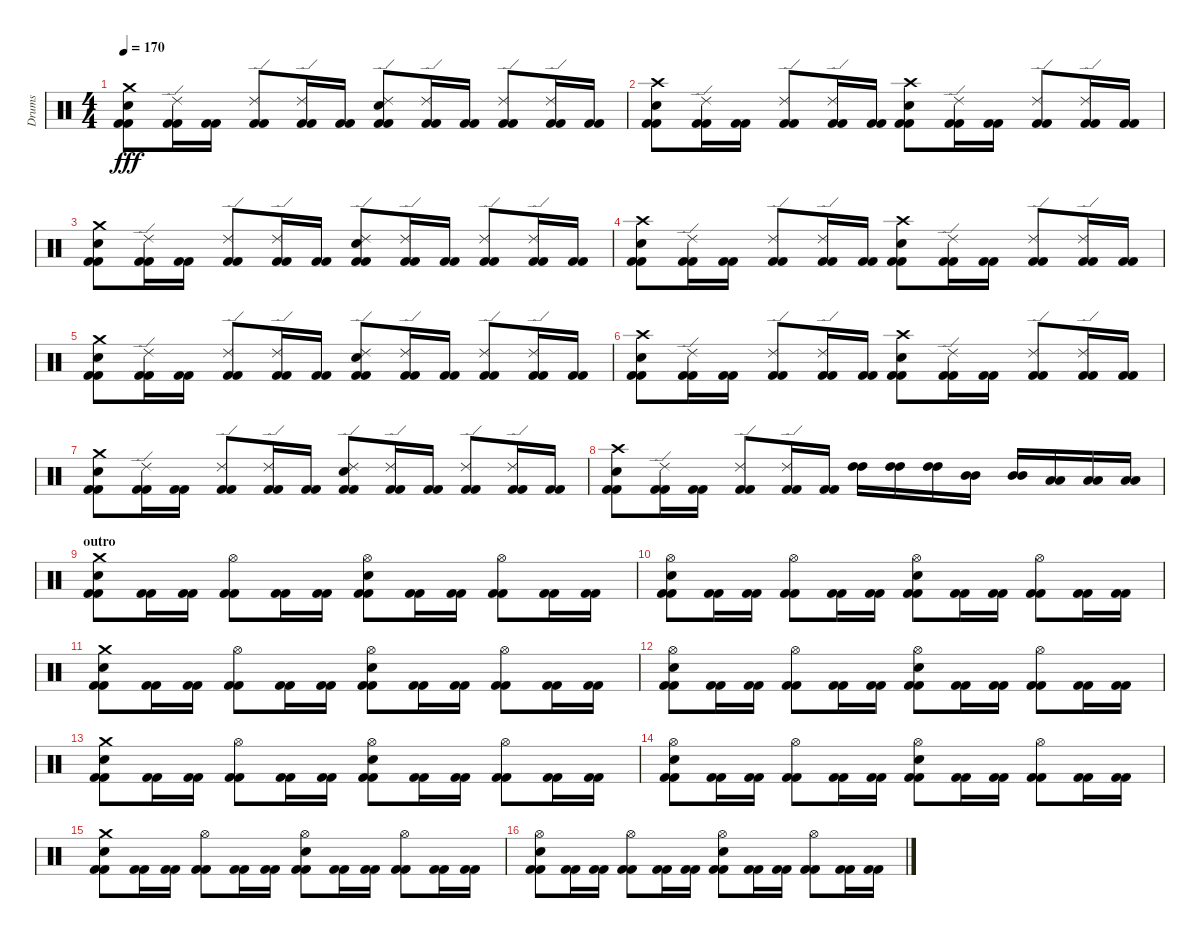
\track ("Drums" "Drums") {instrument percussion}
\staff {score}
\articulation defaults
\ts (4 4)
\tempo 170
\clef neutral
\ks c
("Crash medium (hit)" "Electric Snare (hit)" "Kick (hit) 2" "Kick (hit) 2").8{dy fff} ("Ride (edge) 2" "Kick (hit) 2" "Kick (hit) 2").16 ("Kick (hit) 2" "Kick (hit) 2").16 ("Ride (edge) 2" "Kick (hit) 2" "Kick (hit) 2").8 ("Ride (edge) 2" "Kick (hit) 2" "Kick (hit) 2").16 ("Kick (hit) 2" "Kick (hit) 2").16 ("Ride (edge) 2" "Electric Snare (hit)" "Kick (hit) 2" "Kick (hit) 2").8 ("Ride (edge) 2" "Kick (hit) 2" "Kick (hit) 2").16 ("Kick (hit) 2" "Kick (hit) 2").16 ("Ride (edge) 2" "Kick (hit) 2" "Kick (hit) 2").8 ("Ride (edge) 2" "Kick (hit) 2" "Kick (hit) 2").16 ("Kick (hit) 2" "Kick (hit) 2").16 |
("Crash high (hit)" "Electric Snare (hit)" "Kick (hit) 2" "Kick (hit) 2").8 ("Ride (edge) 2" "Kick (hit) 2" "Kick (hit) 2").16 ("Kick (hit) 2" "Kick (hit) 2").16 ("Ride (edge) 2" "Kick (hit) 2" "Kick (hit) 2").8 ("Ride (edge) 2" "Kick (hit) 2" "Kick (hit) 2").16 ("Kick (hit) 2" "Kick (hit) 2").16 ("Crash high (hit)" "Electric Snare (hit)" "Kick (hit) 2" "Kick (hit) 2").8 ("Ride (edge) 2" "Kick (hit) 2" "Kick (hit) 2").16 ("Kick (hit) 2" "Kick (hit) 2").16 ("Ride (edge) 2" "Kick (hit) 2" "Kick (hit) 2").8 ("Ride (edge) 2" "Kick (hit) 2" "Kick (hit) 2").16 ("Kick (hit) 2" "Kick (hit) 2").16 |
("Crash medium (hit)" "Electric Snare (hit)" "Kick (hit) 2" "Kick (hit) 2").8 ("Ride (edge) 2" "Kick (hit) 2" "Kick (hit) 2").16 ("Kick (hit) 2" "Kick (hit) 2").16 ("Ride (edge) 2" "Kick (hit) 2" "Kick (hit) 2").8 ("Ride (edge) 2" "Kick (hit) 2" "Kick (hit) 2").16 ("Kick (hit) 2" "Kick (hit) 2").16 ("Ride (edge) 2" "Electric Snare (hit)" "Kick (hit) 2" "Kick (hit) 2").8 ("Ride (edge) 2" "Kick (hit) 2" "Kick (hit) 2").16 ("Kick (hit) 2" "Kick (hit) 2").16 ("Ride (edge) 2" "Kick (hit) 2" "Kick (hit) 2").8 ("Ride (edge) 2" "Kick (hit) 2" "Kick (hit) 2").16 ("Kick (hit) 2" "Kick (hit) 2").16 |
("Crash high (hit)" "Electric Snare (hit)" "Kick (hit) 2" "Kick (hit) 2").8 ("Ride (edge) 2" "Kick (hit) 2" "Kick (hit) 2").16 ("Kick (hit) 2" "Kick (hit) 2").16 ("Ride (edge) 2" "Kick (hit) 2" "Kick (hit) 2").8 ("Ride (edge) 2" "Kick (hit) 2" "Kick (hit) 2").16 ("Kick (hit) 2" "Kick (hit) 2").16 ("Crash high (hit)" "Electric Snare (hit)" "Kick (hit) 2" "Kick (hit) 2").8 ("Ride (edge) 2" "Kick (hit) 2" "Kick (hit) 2").16 ("Kick (hit) 2" "Kick (hit) 2").16 ("Ride (edge) 2" "Kick (hit) 2" "Kick (hit) 2").8 ("Ride (edge) 2" "Kick (hit) 2" "Kick (hit) 2").16 ("Kick (hit) 2" "Kick (hit) 2").16 |
("Crash medium (hit)" "Electric Snare (hit)" "Kick (hit) 2" "Kick (hit) 2").8 ("Ride (edge) 2" "Kick (hit) 2" "Kick (hit) 2").16 ("Kick (hit) 2" "Kick (hit) 2").16 ("Ride (edge) 2" "Kick (hit) 2" "Kick (hit) 2").8 ("Ride (edge) 2" "Kick (hit) 2" "Kick (hit) 2").16 ("Kick (hit) 2" "Kick (hit) 2").16 ("Ride (edge) 2" "Electric Snare (hit)" "Kick (hit) 2" "Kick (hit) 2").8 ("Ride (edge) 2" "Kick (hit) 2" "Kick (hit) 2").16 ("Kick (hit) 2" "Kick (hit) 2").16 ("Ride (edge) 2" "Kick (hit) 2" "Kick (hit) 2").8 ("Ride (edge) 2" "Kick (hit) 2" "Kick (hit) 2").16 ("Kick (hit) 2" "Kick (hit) 2").16 |
("Crash high (hit)" "Electric Snare (hit)" "Kick (hit) 2" "Kick (hit) 2").8 ("Ride (edge) 2" "Kick (hit) 2" "Kick (hit) 2").16 ("Kick (hit) 2" "Kick (hit) 2").16 ("Ride (edge) 2" "Kick (hit) 2" "Kick (hit) 2").8 ("Ride (edge) 2" "Kick (hit) 2" "Kick (hit) 2").16 ("Kick (hit) 2" "Kick (hit) 2").16 ("Crash high (hit)" "Electric Snare (hit)" "Kick (hit) 2" "Kick (hit) 2").8 ("Ride (edge) 2" "Kick (hit) 2" "Kick (hit) 2").16 ("Kick (hit) 2" "Kick (hit) 2").16 ("Ride (edge) 2" "Kick (hit) 2" "Kick (hit) 2").8 ("Ride (edge) 2" "Kick (hit) 2" "Kick (hit) 2").16 ("Kick (hit) 2" "Kick (hit) 2").16 |
("Crash medium (hit)" "Electric Snare (hit)" "Kick (hit) 2" "Kick (hit) 2").8 ("Ride (edge) 2" "Kick (hit) 2" "Kick (hit) 2").16 ("Kick (hit) 2" "Kick (hit) 2").16 ("Ride (edge) 2" "Kick (hit) 2" "Kick (hit) 2").8 ("Ride (edge) 2" "Kick (hit) 2" "Kick (hit) 2").16 ("Kick (hit) 2" "Kick (hit) 2").16 ("Ride (edge) 2" "Electric Snare (hit)" "Kick (hit) 2" "Kick (hit) 2").8 ("Ride (edge) 2" "Kick (hit) 2" "Kick (hit) 2").16 ("Kick (hit) 2" "Kick (hit) 2").16 ("Ride (edge) 2" "Kick (hit) 2" "Kick (hit) 2").8 ("Ride (edge) 2" "Kick (hit) 2" "Kick (hit) 2").16 ("Kick (hit) 2" "Kick (hit) 2").16 |
("Crash high (hit)" "Electric Snare (hit)" "Kick (hit) 2" "Kick (hit) 2").8 ("Ride (edge) 2" "Kick (hit) 2" "Kick (hit) 2").16 ("Kick (hit) 2" "Kick (hit) 2").16 ("Ride (edge) 2" "Kick (hit) 2" "Kick (hit) 2").8 ("Ride (edge) 2" "Kick (hit) 2" "Kick (hit) 2").16 ("Kick (hit) 2" "Kick (hit) 2").16 ("High Tom (hit)" "High Tom (hit)").16 ("High Tom (hit)" "High Tom (hit)").16 ("High Tom (hit)" "High Tom (hit)").16 ("Mid Tom (hit)" "Mid Tom (hit)").16 ("Mid Tom (hit)" "Mid Tom (hit)").16 ("Low Tom (hit)" "Low Tom (hit)").16 ("Low Tom (hit)" "Low Tom (hit)").16 ("Low Tom (hit)" "Low Tom (hit)").16 |
\section ("" "outro")
("Crash medium (hit)" "Electric Snare (hit)" "Kick (hit) 2" "Kick (hit) 2").8 ("Kick (hit) 2" "Kick (hit) 2").16 ("Kick (hit) 2" "Kick (hit) 2").16 ("Hi-Hat (open)" "Kick (hit) 2" "Kick (hit) 2").8 ("Kick (hit) 2" "Kick (hit) 2").16 ("Kick (hit) 2" "Kick (hit) 2").16 ("Hi-Hat (open)" "Electric Snare (hit)" "Kick (hit) 2" "Kick (hit) 2").8 ("Kick (hit) 2" "Kick (hit) 2").16 ("Kick (hit) 2" "Kick (hit) 2").16 ("Hi-Hat (open)" "Kick (hit) 2" "Kick (hit) 2").8 ("Kick (hit) 2" "Kick (hit) 2").16 ("Kick (hit) 2" "Kick (hit) 2").16 |
("Hi-Hat (open)" "Electric Snare (hit)" "Kick (hit) 2" "Kick (hit) 2").8 ("Kick (hit) 2" "Kick (hit) 2").16 ("Kick (hit) 2" "Kick (hit) 2").16 ("Hi-Hat (open)" "Kick (hit) 2" "Kick (hit) 2").8 ("Kick (hit) 2" "Kick (hit) 2").16 ("Kick (hit) 2" "Kick (hit) 2").16 ("Hi-Hat (open)" "Electric Snare (hit)" "Kick (hit) 2" "Kick (hit) 2").8 ("Kick (hit) 2" "Kick (hit) 2").16 ("Kick (hit) 2" "Kick (hit) 2").16 ("Hi-Hat (open)" "Kick (hit) 2" "Kick (hit) 2").8 ("Kick (hit) 2" "Kick (hit) 2").16 ("Kick (hit) 2" "Kick (hit) 2").16 |
("Crash medium (hit)" "Electric Snare (hit)" "Kick (hit) 2" "Kick (hit) 2").8 ("Kick (hit) 2" "Kick (hit) 2").16 ("Kick (hit) 2" "Kick (hit) 2").16 ("Hi-Hat (open)" "Kick (hit) 2" "Kick (hit) 2").8 ("Kick (hit) 2" "Kick (hit) 2").16 ("Kick (hit) 2" "Kick (hit) 2").16 ("Hi-Hat (open)" "Electric Snare (hit)" "Kick (hit) 2" "Kick (hit) 2").8 ("Kick (hit) 2" "Kick (hit) 2").16 ("Kick (hit) 2" "Kick (hit) 2").16 ("Hi-Hat (open)" "Kick (hit) 2" "Kick (hit) 2").8 ("Kick (hit) 2" "Kick (hit) 2").16 ("Kick (hit) 2" "Kick (hit) 2").16 |
("Hi-Hat (open)" "Electric Snare (hit)" "Kick (hit) 2" "Kick (hit) 2").8 ("Kick (hit) 2" "Kick (hit) 2").16 ("Kick (hit) 2" "Kick (hit) 2").16 ("Hi-Hat (open)" "Kick (hit) 2" "Kick (hit) 2").8 ("Kick (hit) 2" "Kick (hit) 2").16 ("Kick (hit) 2" "Kick (hit) 2").16 ("Hi-Hat (open)" "Electric Snare (hit)" "Kick (hit) 2" "Kick (hit) 2").8 ("Kick (hit) 2" "Kick (hit) 2").16 ("Kick (hit) 2" "Kick (hit) 2").16 ("Hi-Hat (open)" "Kick (hit) 2" "Kick (hit) 2").8 ("Kick (hit) 2" "Kick (hit) 2").16 ("Kick (hit) 2" "Kick (hit) 2").16 |
("Crash medium (hit)" "Electric Snare (hit)" "Kick (hit) 2" "Kick (hit) 2").8 ("Kick (hit) 2" "Kick (hit) 2").16 ("Kick (hit) 2" "Kick (hit) 2").16 ("Hi-Hat (open)" "Kick (hit) 2" "Kick (hit) 2").8 ("Kick (hit) 2" "Kick (hit) 2").16 ("Kick (hit) 2" "Kick (hit) 2").16 ("Hi-Hat (open)" "Electric Snare (hit)" "Kick (hit) 2" "Kick (hit) 2").8 ("Kick (hit) 2" "Kick (hit) 2").16 ("Kick (hit) 2" "Kick (hit) 2").16 ("Hi-Hat (open)" "Kick (hit) 2" "Kick (hit) 2").8 ("Kick (hit) 2" "Kick (hit) 2").16 ("Kick (hit) 2" "Kick (hit) 2").16 |
("Hi-Hat (open)" "Electric Snare (hit)" "Kick (hit) 2" "Kick (hit) 2").8 ("Kick (hit) 2" "Kick (hit) 2").16 ("Kick (hit) 2" "Kick (hit) 2").16 ("Hi-Hat (open)" "Kick (hit) 2" "Kick (hit) 2").8 ("Kick (hit) 2" "Kick (hit) 2").16 ("Kick (hit) 2" "Kick (hit) 2").16 ("Hi-Hat (open)" "Electric Snare (hit)" "Kick (hit) 2" "Kick (hit) 2").8 ("Kick (hit) 2" "Kick (hit) 2").16 ("Kick (hit) 2" "Kick (hit) 2").16 ("Hi-Hat (open)" "Kick (hit) 2" "Kick (hit) 2").8 ("Kick (hit) 2" "Kick (hit) 2").16 ("Kick (hit) 2" "Kick (hit) 2").16 |
("Crash medium (hit)" "Electric Snare (hit)" "Kick (hit) 2" "Kick (hit) 2").8 ("Kick (hit) 2" "Kick (hit) 2").16 ("Kick (hit) 2" "Kick (hit) 2").16 ("Hi-Hat (open)" "Kick (hit) 2" "Kick (hit) 2").8 ("Kick (hit) 2" "Kick (hit) 2").16 ("Kick (hit) 2" "Kick (hit) 2").16 ("Hi-Hat (open)" "Electric Snare (hit)" "Kick (hit) 2" "Kick (hit) 2").8 ("Kick (hit) 2" "Kick (hit) 2").16 ("Kick (hit) 2" "Kick (hit) 2").16 ("Hi-Hat (open)" "Kick (hit) 2" "Kick (hit) 2").8 ("Kick (hit) 2" "Kick (hit) 2").16 ("Kick (hit) 2" "Kick (hit) 2").16 |
("Hi-Hat (open)" "Electric Snare (hit)" "Kick (hit) 2" "Kick (hit) 2").8 ("Kick (hit) 2" "Kick (hit) 2").16 ("Kick (hit) 2" "Kick (hit) 2").16 ("Hi-Hat (open)" "Kick (hit) 2" "Kick (hit) 2").8 ("Kick (hit) 2" "Kick (hit) 2").16 ("Kick (hit) 2" "Kick (hit) 2").16 ("Hi-Hat (open)" "Electric Snare (hit)" "Kick (hit) 2" "Kick (hit) 2").8 ("Kick (hit) 2" "Kick (hit) 2").16 ("Kick (hit) 2" "Kick (hit) 2").16 ("Hi-Hat (open)" "Kick (hit) 2" "Kick (hit) 2").8 ("Kick (hit) 2" "Kick (hit) 2").16 ("Kick (hit) 2" "Kick (hit) 2").16
